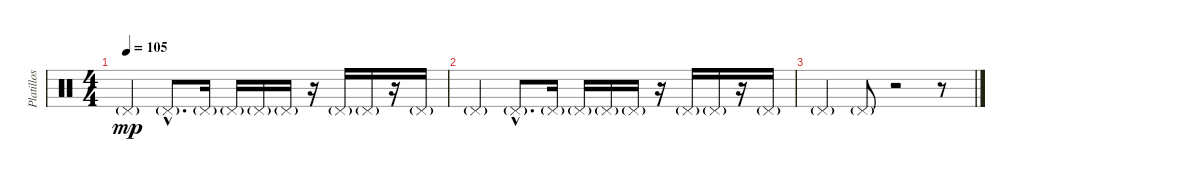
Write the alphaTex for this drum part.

\track ("Platillos" "Platillos") {instrument percussion}
\staff {score}
\articulation defaults
\ts (4 4)
\tempo 105
\clef neutral
\ks c "Pedal Hi-Hat (hit)"{g}.4{dy mp} "Pedal Hi-Hat (hit)"{g hac}.8{d} "Pedal Hi-Hat (hit)"{g}.16 "Pedal Hi-Hat (hit)"{g}.16 "Pedal Hi-Hat (hit)"{g}.16 "Pedal Hi-Hat (hit)"{g}.16
r.16 "Pedal Hi-Hat (hit)"{g}.16 "Pedal Hi-Hat (hit)"{g}.16 r.16 "Pedal Hi-Hat (hit)"{g}.16 |
"Pedal Hi-Hat (hit)"{g}.4 "Pedal Hi-Hat (hit)"{g hac}.8{d} "Pedal Hi-Hat (hit)"{g}.16 "Pedal Hi-Hat (hit)"{g}.16 "Pedal Hi-Hat (hit)"{g}.16 "Pedal Hi-Hat (hit)"{g}.16 r.16 "Pedal Hi-Hat (hit)"{g}.16 "Pedal Hi-Hat (hit)"{g}.16 r.16 "Pedal Hi-Hat (hit)"{g}.16 |
"Pedal Hi-Hat (hit)"{g}.4 "Pedal Hi-Hat (hit)"{g}.8 r.2 r.8
